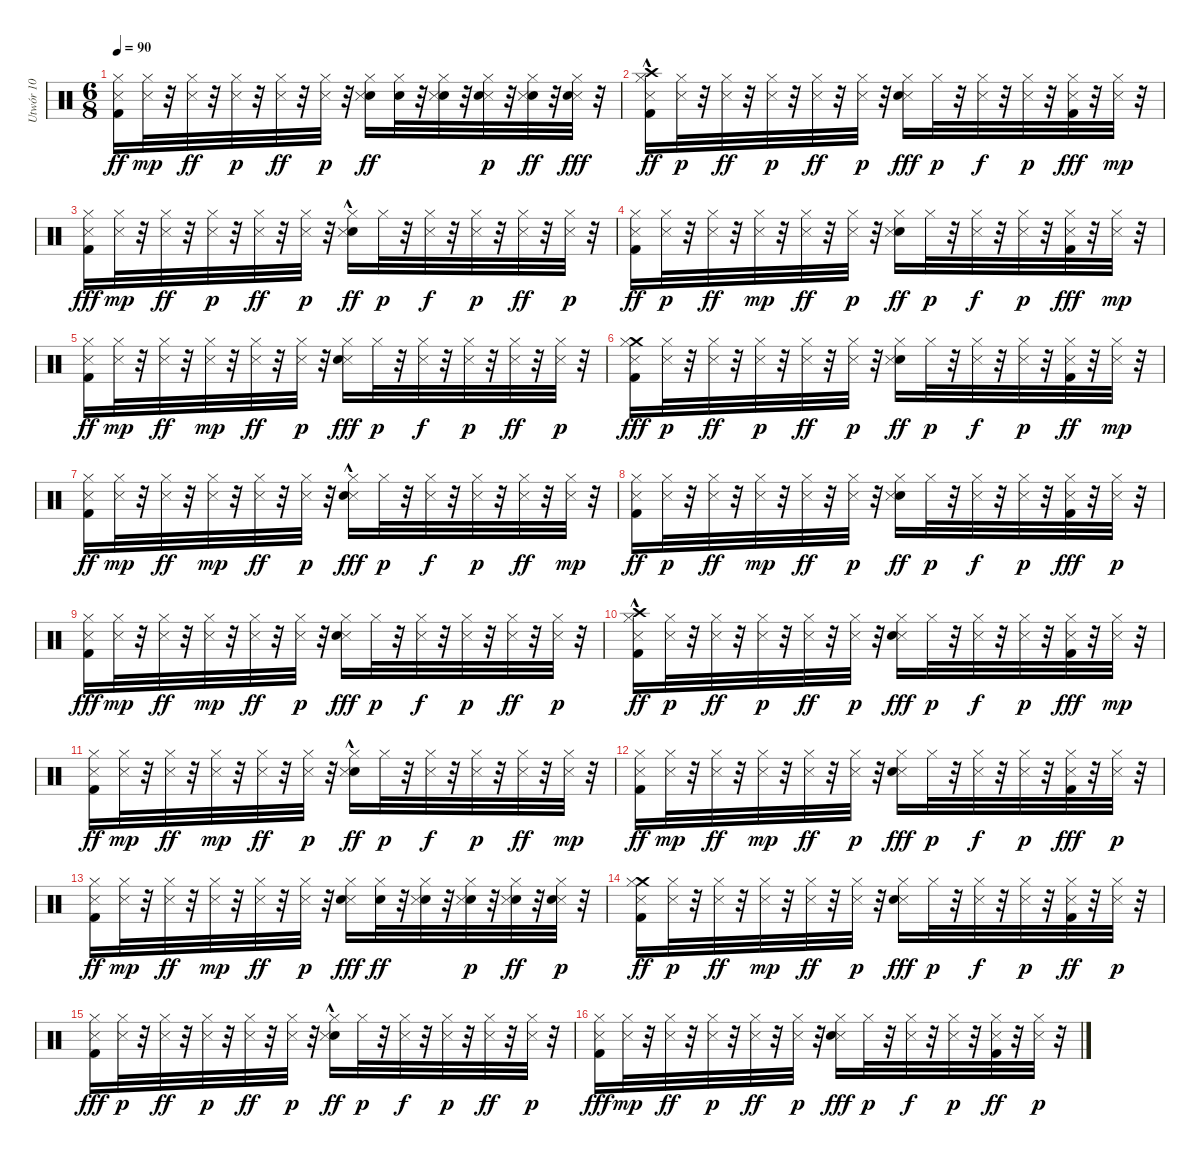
\track ("Utwór 10" "Utwór 10") {instrument percussion}
\staff {score}
\articulation defaults
\ts (6 8)
\tempo 90
\clef neutral
\ks c
("Hi-Hat (closed)" "Kick (hit) 2" "Snare (side stick) 3").16{dy ff} ("Hi-Hat (closed)" "Snare (side stick) 3").32{dy mp} r.32 ("Hi-Hat (closed)" "Snare (side stick) 3").32{dy ff} r.32 ("Snare (side stick) 3" "Hi-Hat (closed)").32{dy p} r.32 ("Hi-Hat (closed)" "Snare (side stick) 3").32{dy ff} r.32 ("Hi-Hat (closed)" "Snare (side stick) 3").32{dy p} r.32 ("Snare (hit) 2" "Snare (side stick) 3" "Hi-Hat (closed)").16{dy ff} ("Hi-Hat (closed)" "Snare (hit) 2").32 r.32 ("Snare (hit) 2" "Snare (side stick) 3" "Hi-Hat (closed)").32 r.32 ("Snare (side stick) 3" "Snare (hit) 2" "Hi-Hat (closed)").32{dy p} r.32 ("Snare (hit) 2" "Snare (side stick) 3" "Hi-Hat (closed)").32{dy ff} r.32 ("Hi-Hat (closed)" "Snare (side stick) 3" "Snare (hit) 2").32{dy fff} r.32 |
("Kick (hit) 2" "Snare (side stick) 3" "Hi-Hat (closed)" "Crash high (hit)"{hac}).16{dy ff} ("Snare (side stick) 3" "Hi-Hat (closed)").32{dy p} r.32 ("Snare (side stick) 3" "Hi-Hat (closed)").32{dy ff} r.32 ("Snare (side stick) 3" "Hi-Hat (closed)").32{dy p} r.32 ("Hi-Hat (closed)" "Snare (side stick) 3").32{dy ff} r.32 ("Hi-Hat (closed)" "Snare (side stick) 3").32{dy p} r.32 ("Hi-Hat (closed)" "Snare (side stick) 3" "Snare (hit) 2").16{dy fff} "Hi-Hat (closed)".32{dy p} r.32 ("Snare (side stick) 3" "Hi-Hat (closed)").32{dy f} r.32 ("Snare (side stick) 3" "Hi-Hat (closed)").32{dy p} r.32 ("Snare (side stick) 3" "Hi-Hat (closed)" "Kick (hit) 2").32{dy fff} r.32 ("Hi-Hat (closed)" "Snare (side stick) 3").32{dy mp} r.32 |
("Snare (side stick) 3" "Hi-Hat (closed)" "Kick (hit) 2").16{dy fff} ("Hi-Hat (closed)" "Snare (side stick) 3").32{dy mp} r.32 ("Snare (side stick) 3" "Hi-Hat (closed)").32{dy ff} r.32 ("Snare (side stick) 3" "Hi-Hat (closed)").32{dy p} r.32 ("Hi-Hat (closed)" "Snare (side stick) 3").32{dy ff} r.32 ("Snare (side stick) 3" "Hi-Hat (closed)").32{dy p} r.32 ("Hi-Hat (closed)" "Snare (hit) 2"{hac} "Snare (side stick) 3").16{dy ff} "Hi-Hat (closed)".32{dy p} r.32 ("Hi-Hat (closed)" "Snare (side stick) 3").32{dy f} r.32 ("Snare (side stick) 3" "Hi-Hat (closed)").32{dy p} r.32 ("Hi-Hat (closed)" "Snare (side stick) 3").32{dy ff} r.32 ("Snare (side stick) 3" "Hi-Hat (closed)").32{dy p} r.32 |
("Kick (hit) 2" "Snare (side stick) 3" "Hi-Hat (closed)").16{dy ff} ("Snare (side stick) 3" "Hi-Hat (closed)").32{dy p} r.32 ("Snare (side stick) 3" "Hi-Hat (closed)").32{dy ff} r.32 ("Hi-Hat (closed)" "Snare (side stick) 3").32{dy mp} r.32 ("Snare (side stick) 3" "Hi-Hat (closed)").32{dy ff} r.32 ("Snare (side stick) 3" "Hi-Hat (closed)").32{dy p} r.32 ("Snare (hit) 2" "Snare (side stick) 3" "Hi-Hat (closed)").16{dy ff} "Hi-Hat (closed)".32{dy p} r.32 ("Hi-Hat (closed)" "Snare (side stick) 3").32{dy f} r.32 ("Hi-Hat (closed)" "Snare (side stick) 3").32{dy p} r.32 ("Hi-Hat (closed)" "Snare (side stick) 3" "Kick (hit) 2").32{dy fff} r.32 ("Hi-Hat (closed)" "Snare (side stick) 3").32{dy mp} r.32 |
("Kick (hit) 2" "Hi-Hat (closed)" "Snare (side stick) 3").16{dy ff} ("Hi-Hat (closed)" "Snare (side stick) 3").32{dy mp} r.32 ("Hi-Hat (closed)" "Snare (side stick) 3").32{dy ff} r.32 ("Hi-Hat (closed)" "Snare (side stick) 3").32{dy mp} r.32 ("Hi-Hat (closed)" "Snare (side stick) 3").32{dy ff} r.32 ("Hi-Hat (closed)" "Snare (side stick) 3").32{dy p} r.32 ("Hi-Hat (closed)" "Snare (side stick) 3" "Snare (hit) 2").16{dy fff} "Hi-Hat (closed)".32{dy p} r.32 ("Snare (side stick) 3" "Hi-Hat (closed)").32{dy f} r.32 ("Snare (side stick) 3" "Hi-Hat (closed)").32{dy p} r.32 ("Snare (side stick) 3" "Hi-Hat (closed)").32{dy ff} r.32 ("Snare (side stick) 3" "Hi-Hat (closed)").32{dy p} r.32 |
("Crash medium (hit)" "Snare (side stick) 3" "Hi-Hat (closed)" "Kick (hit) 2").16{dy fff} ("Snare (side stick) 3" "Hi-Hat (closed)").32{dy p} r.32 ("Snare (side stick) 3" "Hi-Hat (closed)").32{dy ff} r.32 ("Snare (side stick) 3" "Hi-Hat (closed)").32{dy p} r.32 ("Hi-Hat (closed)" "Snare (side stick) 3").32{dy ff} r.32 ("Snare (side stick) 3" "Hi-Hat (closed)").32{dy p} r.32 ("Snare (hit) 2" "Snare (side stick) 3" "Hi-Hat (closed)").16{dy ff} "Hi-Hat (closed)".32{dy p} r.32 ("Hi-Hat (closed)" "Snare (side stick) 3").32{dy f} r.32 ("Snare (side stick) 3" "Hi-Hat (closed)").32{dy p} r.32 ("Kick (hit) 2" "Hi-Hat (closed)" "Snare (side stick) 3").32{dy ff} r.32 ("Hi-Hat (closed)" "Snare (side stick) 3").32{dy mp} r.32 |
("Snare (side stick) 3" "Kick (hit) 2" "Hi-Hat (closed)").16{dy ff} ("Hi-Hat (closed)" "Snare (side stick) 3").32{dy mp} r.32 ("Snare (side stick) 3" "Hi-Hat (closed)").32{dy ff} r.32 ("Hi-Hat (closed)" "Snare (side stick) 3").32{dy mp} r.32 ("Snare (side stick) 3" "Hi-Hat (closed)").32{dy ff} r.32 ("Hi-Hat (closed)" "Snare (side stick) 3").32{dy p} r.32 ("Snare (side stick) 3" "Hi-Hat (closed)" "Snare (hit) 2"{hac}).16{dy fff} "Hi-Hat (closed)".32{dy p} r.32 ("Hi-Hat (closed)" "Snare (side stick) 3").32{dy f} r.32 ("Hi-Hat (closed)" "Snare (side stick) 3").32{dy p} r.32 ("Hi-Hat (closed)" "Snare (side stick) 3").32{dy ff} r.32 ("Hi-Hat (closed)" "Snare (side stick) 3").32{dy mp} r.32 |
("Kick (hit) 2" "Snare (side stick) 3" "Hi-Hat (closed)").16{dy ff} ("Snare (side stick) 3" "Hi-Hat (closed)").32{dy p} r.32 ("Hi-Hat (closed)" "Snare (side stick) 3").32{dy ff} r.32 ("Hi-Hat (closed)" "Snare (side stick) 3").32{dy mp} r.32 ("Snare (side stick) 3" "Hi-Hat (closed)").32{dy ff} r.32 ("Snare (side stick) 3" "Hi-Hat (closed)").32{dy p} r.32 ("Hi-Hat (closed)" "Snare (hit) 2" "Snare (side stick) 3").16{dy ff} "Hi-Hat (closed)".32{dy p} r.32 ("Snare (side stick) 3" "Hi-Hat (closed)").32{dy f} r.32 ("Snare (side stick) 3" "Hi-Hat (closed)").32{dy p} r.32 ("Snare (side stick) 3" "Hi-Hat (closed)" "Kick (hit) 2").32{dy fff} r.32 ("Snare (side stick) 3" "Hi-Hat (closed)").32{dy p} r.32 |
("Hi-Hat (closed)" "Snare (side stick) 3" "Kick (hit) 2").16{dy fff} ("Hi-Hat (closed)" "Snare (side stick) 3").32{dy mp} r.32 ("Snare (side stick) 3" "Hi-Hat (closed)").32{dy ff} r.32 ("Hi-Hat (closed)" "Snare (side stick) 3").32{dy mp} r.32 ("Hi-Hat (closed)" "Snare (side stick) 3").32{dy ff} r.32 ("Hi-Hat (closed)" "Snare (side stick) 3").32{dy p} r.32 ("Snare (side stick) 3" "Hi-Hat (closed)" "Snare (hit) 2").16{dy fff} "Hi-Hat (closed)".32{dy p} r.32 ("Hi-Hat (closed)" "Snare (side stick) 3").32{dy f} r.32 ("Snare (side stick) 3" "Hi-Hat (closed)").32{dy p} r.32 ("Hi-Hat (closed)" "Snare (side stick) 3").32{dy ff} r.32 ("Snare (side stick) 3" "Hi-Hat (closed)").32{dy p} r.32 |
("Crash high (hit)"{hac} "Hi-Hat (closed)" "Kick (hit) 2" "Snare (side stick) 3").16{dy ff} ("Snare (side stick) 3" "Hi-Hat (closed)").32{dy p} r.32 ("Snare (side stick) 3" "Hi-Hat (closed)").32{dy ff} r.32 ("Snare (side stick) 3" "Hi-Hat (closed)").32{dy p} r.32 ("Snare (side stick) 3" "Hi-Hat (closed)").32{dy ff} r.32 ("Snare (side stick) 3" "Hi-Hat (closed)").32{dy p} r.32 ("Snare (side stick) 3" "Hi-Hat (closed)" "Snare (hit) 2").16{dy fff} "Hi-Hat (closed)".32{dy p} r.32 ("Snare (side stick) 3" "Hi-Hat (closed)").32{dy f} r.32 ("Snare (side stick) 3" "Hi-Hat (closed)").32{dy p} r.32 ("Hi-Hat (closed)" "Snare (side stick) 3" "Kick (hit) 2").32{dy fff} r.32 ("Hi-Hat (closed)" "Snare (side stick) 3").32{dy mp} r.32 |
("Snare (side stick) 3" "Kick (hit) 2" "Hi-Hat (closed)").16{dy ff} ("Hi-Hat (closed)" "Snare (side stick) 3").32{dy mp} r.32 ("Hi-Hat (closed)" "Snare (side stick) 3").32{dy ff} r.32 ("Hi-Hat (closed)" "Snare (side stick) 3").32{dy mp} r.32 ("Snare (side stick) 3" "Hi-Hat (closed)").32{dy ff} r.32 ("Snare (side stick) 3" "Hi-Hat (closed)").32{dy p} r.32 ("Snare (hit) 2"{hac} "Snare (side stick) 3" "Hi-Hat (closed)").16{dy ff} "Hi-Hat (closed)".32{dy p} r.32 ("Hi-Hat (closed)" "Snare (side stick) 3").32{dy f} r.32 ("Snare (side stick) 3" "Hi-Hat (closed)").32{dy p} r.32 ("Snare (side stick) 3" "Hi-Hat (closed)").32{dy ff} r.32 ("Hi-Hat (closed)" "Snare (side stick) 3").32{dy mp} r.32 |
("Hi-Hat (closed)" "Kick (hit) 2" "Snare (side stick) 3").16{dy ff} ("Hi-Hat (closed)" "Snare (side stick) 3").32{dy mp} r.32 ("Snare (side stick) 3" "Hi-Hat (closed)").32{dy ff} r.32 ("Hi-Hat (closed)" "Snare (side stick) 3").32{dy mp} r.32 ("Hi-Hat (closed)" "Snare (side stick) 3").32{dy ff} r.32 ("Snare (side stick) 3" "Hi-Hat (closed)").32{dy p} r.32 ("Hi-Hat (closed)" "Snare (side stick) 3" "Snare (hit) 2").16{dy fff} "Hi-Hat (closed)".32{dy p} r.32 ("Snare (side stick) 3" "Hi-Hat (closed)").32{dy f} r.32 ("Snare (side stick) 3" "Hi-Hat (closed)").32{dy p} r.32 ("Snare (side stick) 3" "Kick (hit) 2" "Hi-Hat (closed)").32{dy fff} r.32 ("Snare (side stick) 3" "Hi-Hat (closed)").32{dy p} r.32 |
("Hi-Hat (closed)" "Kick (hit) 2" "Snare (side stick) 3").16{dy ff} ("Hi-Hat (closed)" "Snare (side stick) 3").32{dy mp} r.32 ("Snare (side stick) 3" "Hi-Hat (closed)").32{dy ff} r.32 ("Hi-Hat (closed)" "Snare (side stick) 3").32{dy mp} r.32 ("Snare (side stick) 3" "Hi-Hat (closed)").32{dy ff} r.32 ("Snare (side stick) 3" "Hi-Hat (closed)").32{dy p} r.32 ("Snare (side stick) 3" "Snare (hit) 2" "Hi-Hat (closed)").16{dy fff} ("Hi-Hat (closed)" "Snare (hit) 2").32{dy ff} r.32 ("Snare (hit) 2" "Hi-Hat (closed)" "Snare (side stick) 3").32 r.32 ("Hi-Hat (closed)" "Snare (hit) 2" "Snare (side stick) 3").32{dy p} r.32 ("Snare (hit) 2" "Hi-Hat (closed)" "Snare (side stick) 3").32{dy ff} r.32 ("Snare (side stick) 3" "Snare (hit) 2" "Hi-Hat (closed)").32{dy p} r.32 |
("Crash medium (hit)" "Kick (hit) 2" "Snare (side stick) 3" "Hi-Hat (closed)").16{dy ff} ("Snare (side stick) 3" "Hi-Hat (closed)").32{dy p} r.32 ("Hi-Hat (closed)" "Snare (side stick) 3").32{dy ff} r.32 ("Hi-Hat (closed)" "Snare (side stick) 3").32{dy mp} r.32 ("Snare (side stick) 3" "Hi-Hat (closed)").32{dy ff} r.32 ("Hi-Hat (closed)" "Snare (side stick) 3").32{dy p} r.32 ("Hi-Hat (closed)" "Snare (side stick) 3" "Snare (hit) 2").16{dy fff} "Hi-Hat (closed)".32{dy p} r.32 ("Snare (side stick) 3" "Hi-Hat (closed)").32{dy f} r.32 ("Hi-Hat (closed)" "Snare (side stick) 3").32{dy p} r.32 ("Hi-Hat (closed)" "Kick (hit) 2" "Snare (side stick) 3").32{dy ff} r.32 ("Snare (side stick) 3" "Hi-Hat (closed)").32{dy p} r.32 |
("Hi-Hat (closed)" "Snare (side stick) 3" "Kick (hit) 2").16{dy fff} ("Snare (side stick) 3" "Hi-Hat (closed)").32{dy p} r.32 ("Hi-Hat (closed)" "Snare (side stick) 3").32{dy ff} r.32 ("Snare (side stick) 3" "Hi-Hat (closed)").32{dy p} r.32 ("Snare (side stick) 3" "Hi-Hat (closed)").32{dy ff} r.32 ("Hi-Hat (closed)" "Snare (side stick) 3").32{dy p} r.32 ("Snare (hit) 2"{hac} "Hi-Hat (closed)" "Snare (side stick) 3").16{dy ff} "Hi-Hat (closed)".32{dy p} r.32 ("Hi-Hat (closed)" "Snare (side stick) 3").32{dy f} r.32 ("Snare (side stick) 3" "Hi-Hat (closed)").32{dy p} r.32 ("Hi-Hat (closed)" "Snare (side stick) 3").32{dy ff} r.32 ("Snare (side stick) 3" "Hi-Hat (closed)").32{dy p} r.32 |
("Snare (side stick) 3" "Hi-Hat (closed)" "Kick (hit) 2").16{dy fff} ("Hi-Hat (closed)" "Snare (side stick) 3").32{dy mp} r.32 ("Snare (side stick) 3" "Hi-Hat (closed)").32{dy ff} r.32 ("Snare (side stick) 3" "Hi-Hat (closed)").32{dy p} r.32 ("Hi-Hat (closed)" "Snare (side stick) 3").32{dy ff} r.32 ("Hi-Hat (closed)" "Snare (side stick) 3").32{dy p} r.32 ("Snare (side stick) 3" "Hi-Hat (closed)" "Snare (hit) 2").16{dy fff} "Hi-Hat (closed)".32{dy p} r.32 ("Snare (side stick) 3" "Hi-Hat (closed)").32{dy f} r.32 ("Snare (side stick) 3" "Hi-Hat (closed)").32{dy p} r.32 ("Hi-Hat (closed)" "Kick (hit) 2" "Snare (side stick) 3").32{dy ff} r.32 ("Snare (side stick) 3" "Hi-Hat (closed)").32{dy p} r.32
